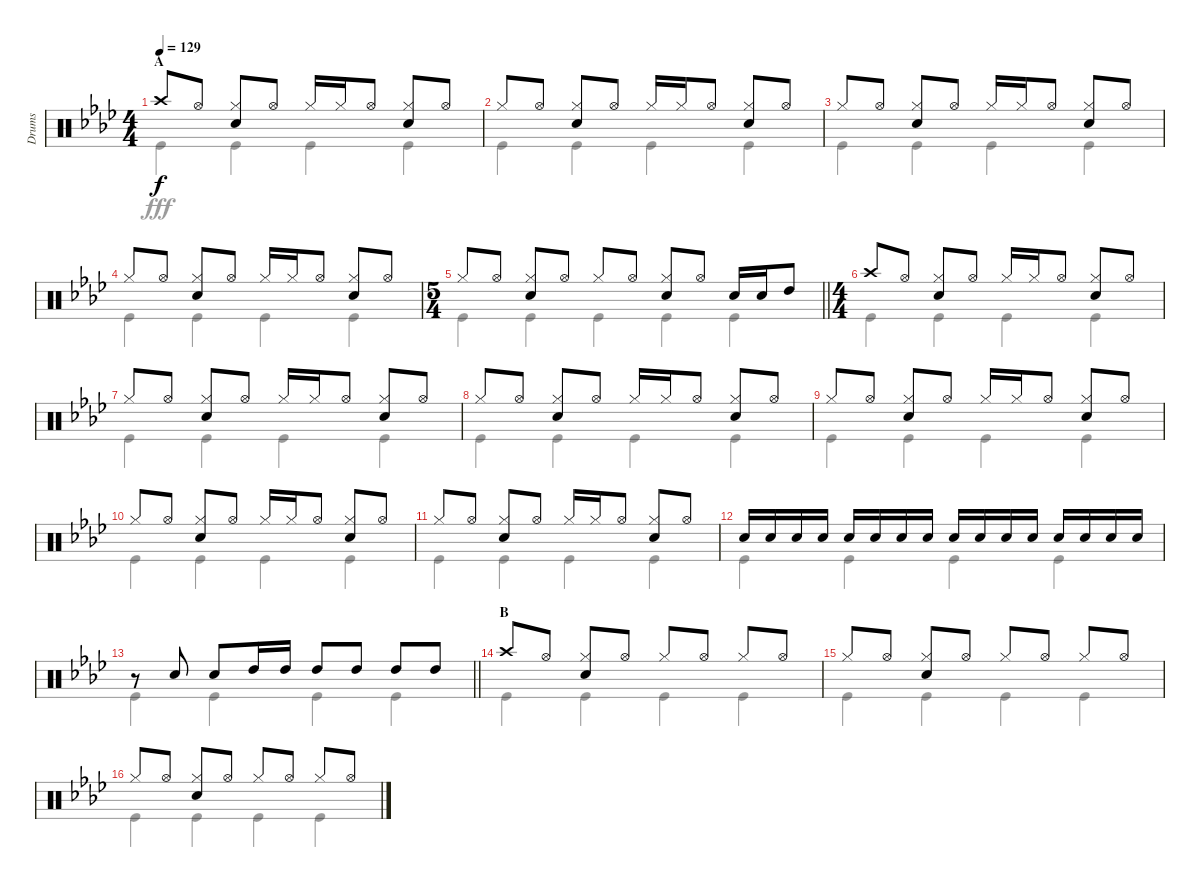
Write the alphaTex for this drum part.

\track ("Drums" "Drums") {instrument percussion}
\staff {score}
\articulation defaults
\voice
\ts (4 4)
\section ("" "A")
\tempo 129
\clef neutral
\ks ab "Crash high (hit)".8{dy f} "Hi-Hat (open)".8
("Hi-Hat (closed)" "Snare (hit) 2").8 "Hi-Hat (open)".8 "Hi-Hat (closed)".16 "Hi-Hat (closed)".16 "Hi-Hat (open)".8 ("Hi-Hat (closed)" "Snare (hit) 2").8 "Hi-Hat (open)".8 |
"Hi-Hat (closed)".8 "Hi-Hat (open)".8 ("Hi-Hat (closed)" "Snare (hit) 2").8 "Hi-Hat (open)".8 "Hi-Hat (closed)".16 "Hi-Hat (closed)".16 "Hi-Hat (open)".8 ("Hi-Hat (closed)" "Snare (hit) 2").8 "Hi-Hat (open)".8 |
"Hi-Hat (closed)".8 "Hi-Hat (open)".8 ("Hi-Hat (closed)" "Snare (hit) 2").8 "Hi-Hat (open)".8 "Hi-Hat (closed)".16 "Hi-Hat (closed)".16 "Hi-Hat (open)".8 ("Hi-Hat (closed)" "Snare (hit) 2").8 "Hi-Hat (open)".8 |
"Hi-Hat (closed)".8 "Hi-Hat (open)".8 ("Hi-Hat (closed)" "Snare (hit) 2").8 "Hi-Hat (open)".8 "Hi-Hat (closed)".16 "Hi-Hat (closed)".16 "Hi-Hat (open)".8 ("Hi-Hat (closed)" "Snare (hit) 2").8 "Hi-Hat (open)".8 |
\ts (5 4)
\barLineRight lightlight "Hi-Hat (closed)".8 "Hi-Hat (open)".8{beam split}
("Hi-Hat (closed)" "Snare (hit) 2").8 "Hi-Hat (open)".8{beam split} "Hi-Hat (closed)".8{beam merge} "Hi-Hat (open)".8 ("Hi-Hat (closed)" "Snare (hit) 2").8 "Hi-Hat (open)".8 "Snare (hit) 2".16 "Snare (hit) 2".16 "High Tom (hit)".8 |
\ts (4 4)
"Crash high (hit)".8 "Hi-Hat (open)".8 ("Hi-Hat (closed)" "Snare (hit) 2").8 "Hi-Hat (open)".8 "Hi-Hat (closed)".16 "Hi-Hat (closed)".16 "Hi-Hat (open)".8 ("Hi-Hat (closed)" "Snare (hit) 2").8 "Hi-Hat (open)".8 |
"Hi-Hat (closed)".8 "Hi-Hat (open)".8 ("Hi-Hat (closed)" "Snare (hit) 2").8 "Hi-Hat (open)".8 "Hi-Hat (closed)".16 "Hi-Hat (closed)".16 "Hi-Hat (open)".8 ("Hi-Hat (closed)" "Snare (hit) 2").8 "Hi-Hat (open)".8 |
"Hi-Hat (closed)".8 "Hi-Hat (open)".8 ("Hi-Hat (closed)" "Snare (hit) 2").8 "Hi-Hat (open)".8 "Hi-Hat (closed)".16 "Hi-Hat (closed)".16 "Hi-Hat (open)".8 ("Hi-Hat (closed)" "Snare (hit) 2").8 "Hi-Hat (open)".8 |
"Hi-Hat (closed)".8 "Hi-Hat (open)".8 ("Hi-Hat (closed)" "Snare (hit) 2").8 "Hi-Hat (open)".8 "Hi-Hat (closed)".16 "Hi-Hat (closed)".16 "Hi-Hat (open)".8 ("Hi-Hat (closed)" "Snare (hit) 2").8 "Hi-Hat (open)".8 |
"Hi-Hat (closed)".8 "Hi-Hat (open)".8 ("Hi-Hat (closed)" "Snare (hit) 2").8 "Hi-Hat (open)".8 "Hi-Hat (closed)".16 "Hi-Hat (closed)".16 "Hi-Hat (open)".8 ("Hi-Hat (closed)" "Snare (hit) 2").8 "Hi-Hat (open)".8 |
"Hi-Hat (closed)".8 "Hi-Hat (open)".8 ("Hi-Hat (closed)" "Snare (hit) 2").8 "Hi-Hat (open)".8 "Hi-Hat (closed)".16 "Hi-Hat (closed)".16 "Hi-Hat (open)".8 ("Hi-Hat (closed)" "Snare (hit) 2").8 "Hi-Hat (open)".8 |
"Snare (hit) 2".16 "Snare (hit) 2".16 "Snare (hit) 2".16 "Snare (hit) 2".16 "Snare (hit) 2".16 "Snare (hit) 2".16 "Snare (hit) 2".16 "Snare (hit) 2".16 "Snare (hit) 2".16 "Snare (hit) 2".16 "Snare (hit) 2".16 "Snare (hit) 2".16 "Snare (hit) 2".16 "Snare (hit) 2".16 "Snare (hit) 2".16 "Snare (hit) 2".16 |
\barLineRight lightlight
r.8 "Snare (hit) 2".8 "Snare (hit) 2".8 "High Tom (hit)".16 "High Tom (hit)".16 "High Tom (hit)".8 "High Tom (hit)".8 "High Tom (hit)".8 "High Tom (hit)".8 |
\section ("" "B")
"Crash high (hit)".8 "Hi-Hat (open)".8 ("Hi-Hat (closed)" "Snare (hit) 2").8 "Hi-Hat (open)".8 "Hi-Hat (closed)".8 "Hi-Hat (open)".8 "Hi-Hat (closed)".8 "Hi-Hat (open)".8 |
"Hi-Hat (closed)".8 "Hi-Hat (open)".8 ("Hi-Hat (closed)" "Snare (hit) 2").8 "Hi-Hat (open)".8 "Hi-Hat (closed)".8 "Hi-Hat (open)".8 "Hi-Hat (closed)".8 "Hi-Hat (open)".8 |
"Hi-Hat (closed)".8 "Hi-Hat (open)".8 ("Hi-Hat (closed)" "Snare (hit) 2").8 "Hi-Hat (open)".8 "Hi-Hat (closed)".8 "Hi-Hat (open)".8 "Hi-Hat (closed)".8 "Hi-Hat (open)".8
\voice
\clef neutral
\ottava regular
\simile none
\ks ab "Kick (hit)".4{dy fff} "Kick (hit)".4 "Kick (hit)".4 "Kick (hit)".4
|
"Kick (hit)".4 "Kick (hit)".4 "Kick (hit)".4 "Kick (hit)".4 |
"Kick (hit)".4 "Kick (hit)".4 "Kick (hit)".4 "Kick (hit)".4 |
"Kick (hit)".4 "Kick (hit)".4 "Kick (hit)".4 "Kick (hit)".4 |
\barLineRight lightlight "Kick (hit)".4 "Kick (hit)".4 "Kick (hit)".4 "Kick (hit)".4 "Kick (hit)".4
|
"Kick (hit)".4 "Kick (hit)".4 "Kick (hit)".4 "Kick (hit)".4 |
"Kick (hit)".4 "Kick (hit)".4 "Kick (hit)".4 "Kick (hit)".4 |
"Kick (hit)".4 "Kick (hit)".4 "Kick (hit)".4 "Kick (hit)".4 |
"Kick (hit)".4 "Kick (hit)".4 "Kick (hit)".4 "Kick (hit)".4 |
"Kick (hit)".4 "Kick (hit)".4 "Kick (hit)".4 "Kick (hit)".4 |
"Kick (hit)".4 "Kick (hit)".4 "Kick (hit)".4 "Kick (hit)".4 |
"Kick (hit)".4 "Kick (hit)".4 "Kick (hit)".4 "Kick (hit)".4 |
\barLineRight lightlight "Kick (hit)".4 "Kick (hit)".4 "Kick (hit)".4 "Kick (hit)".4
|
"Kick (hit)".4 "Kick (hit)".4 "Kick (hit)".4 "Kick (hit)".4 |
"Kick (hit)".4 "Kick (hit)".4 "Kick (hit)".4 "Kick (hit)".4 |
"Kick (hit)".4 "Kick (hit)".4 "Kick (hit)".4 "Kick (hit)".4
